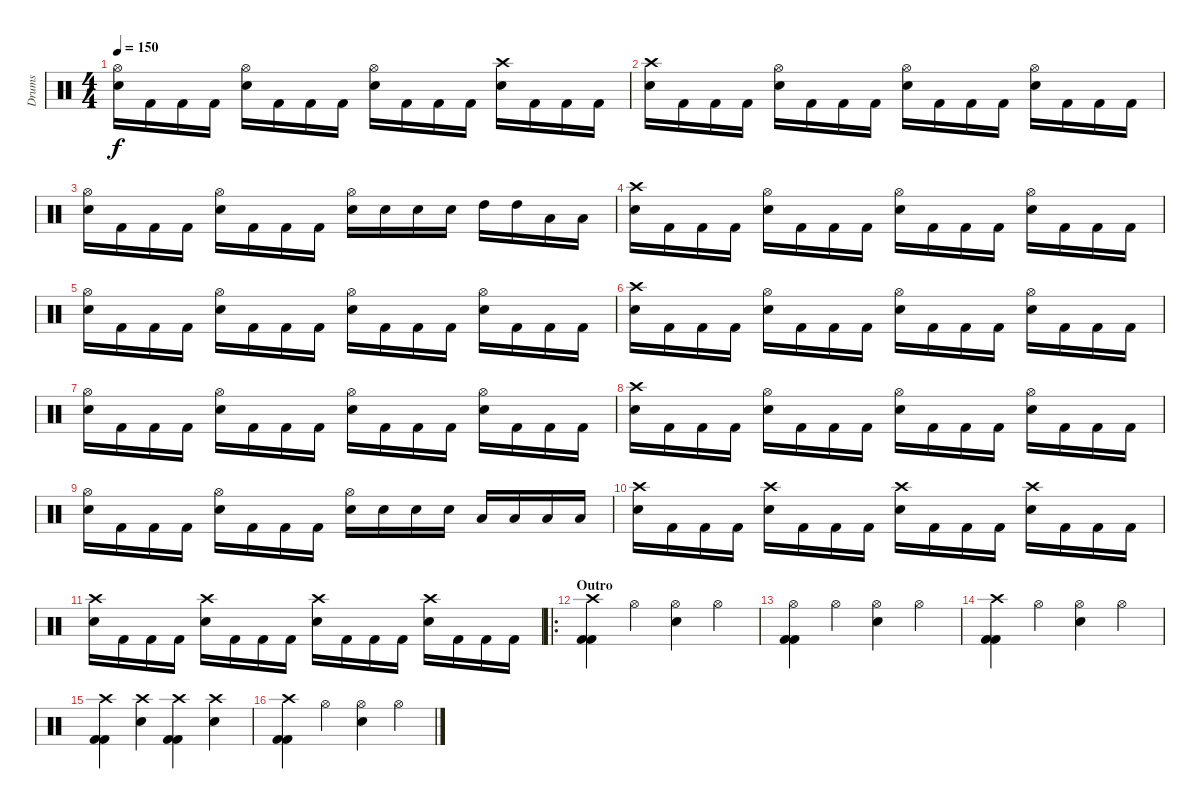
\track ("Drums" "Drums") {instrument percussion}
\staff {score}
\articulation defaults
\ts (4 4)
\tempo 150
\clef neutral
\ks c
("Electric Snare (hit)" "Hi-Hat (open)").16{dy f} "Kick (hit) 2".16 "Kick (hit) 2".16 "Kick (hit) 2".16 ("Hi-Hat (open)" "Electric Snare (hit)").16 "Kick (hit) 2".16 "Kick (hit) 2".16 "Kick (hit) 2".16 ("Electric Snare (hit)" "Hi-Hat (open)").16 "Kick (hit) 2".16 "Kick (hit) 2".16 "Kick (hit) 2".16 ("Electric Snare (hit)" "Crash high (hit)").16 "Kick (hit) 2".16 "Kick (hit) 2".16 "Kick (hit) 2".16 |
("Electric Snare (hit)" "Crash high (hit)").16 "Kick (hit) 2".16 "Kick (hit) 2".16 "Kick (hit) 2".16 ("Hi-Hat (open)" "Electric Snare (hit)").16 "Kick (hit) 2".16 "Kick (hit) 2".16 "Kick (hit) 2".16 ("Electric Snare (hit)" "Hi-Hat (open)").16 "Kick (hit) 2".16 "Kick (hit) 2".16 "Kick (hit) 2".16 ("Electric Snare (hit)" "Hi-Hat (open)").16 "Kick (hit) 2".16 "Kick (hit) 2".16 "Kick (hit) 2".16 |
("Electric Snare (hit)" "Hi-Hat (open)").16 "Kick (hit) 2".16 "Kick (hit) 2".16 "Kick (hit) 2".16 ("Hi-Hat (open)" "Electric Snare (hit)").16 "Kick (hit) 2".16 "Kick (hit) 2".16 "Kick (hit) 2".16 ("Electric Snare (hit)" "Hi-Hat (open)").16 "Electric Snare (hit)".16 "Electric Snare (hit)".16 "Electric Snare (hit)".16 "High Tom (hit)".16 "High Tom (hit)".16 "Low Tom (hit)".16 "Low Tom (hit)".16 |
("Electric Snare (hit)" "Crash high (hit)").16 "Kick (hit) 2".16 "Kick (hit) 2".16 "Kick (hit) 2".16 ("Hi-Hat (open)" "Electric Snare (hit)").16 "Kick (hit) 2".16 "Kick (hit) 2".16 "Kick (hit) 2".16 ("Electric Snare (hit)" "Hi-Hat (open)").16 "Kick (hit) 2".16 "Kick (hit) 2".16 "Kick (hit) 2".16 ("Electric Snare (hit)" "Hi-Hat (open)").16 "Kick (hit) 2".16 "Kick (hit) 2".16 "Kick (hit) 2".16 |
("Electric Snare (hit)" "Hi-Hat (open)").16 "Kick (hit) 2".16 "Kick (hit) 2".16 "Kick (hit) 2".16 ("Hi-Hat (open)" "Electric Snare (hit)").16 "Kick (hit) 2".16 "Kick (hit) 2".16 "Kick (hit) 2".16 ("Electric Snare (hit)" "Hi-Hat (open)").16 "Kick (hit) 2".16 "Kick (hit) 2".16 "Kick (hit) 2".16 ("Electric Snare (hit)" "Hi-Hat (open)").16 "Kick (hit) 2".16 "Kick (hit) 2".16 "Kick (hit) 2".16 |
("Electric Snare (hit)" "Crash high (hit)").16 "Kick (hit) 2".16 "Kick (hit) 2".16 "Kick (hit) 2".16 ("Hi-Hat (open)" "Electric Snare (hit)").16 "Kick (hit) 2".16 "Kick (hit) 2".16 "Kick (hit) 2".16 ("Electric Snare (hit)" "Hi-Hat (open)").16 "Kick (hit) 2".16 "Kick (hit) 2".16 "Kick (hit) 2".16 ("Electric Snare (hit)" "Hi-Hat (open)").16 "Kick (hit) 2".16 "Kick (hit) 2".16 "Kick (hit) 2".16 |
("Electric Snare (hit)" "Hi-Hat (open)").16 "Kick (hit) 2".16 "Kick (hit) 2".16 "Kick (hit) 2".16 ("Hi-Hat (open)" "Electric Snare (hit)").16 "Kick (hit) 2".16 "Kick (hit) 2".16 "Kick (hit) 2".16 ("Electric Snare (hit)" "Hi-Hat (open)").16 "Kick (hit) 2".16 "Kick (hit) 2".16 "Kick (hit) 2".16 ("Electric Snare (hit)" "Hi-Hat (open)").16 "Kick (hit) 2".16 "Kick (hit) 2".16 "Kick (hit) 2".16 |
("Electric Snare (hit)" "Crash high (hit)").16 "Kick (hit) 2".16 "Kick (hit) 2".16 "Kick (hit) 2".16 ("Hi-Hat (open)" "Electric Snare (hit)").16 "Kick (hit) 2".16 "Kick (hit) 2".16 "Kick (hit) 2".16 ("Electric Snare (hit)" "Hi-Hat (open)").16 "Kick (hit) 2".16 "Kick (hit) 2".16 "Kick (hit) 2".16 ("Electric Snare (hit)" "Hi-Hat (open)").16 "Kick (hit) 2".16 "Kick (hit) 2".16 "Kick (hit) 2".16 |
("Electric Snare (hit)" "Hi-Hat (open)").16 "Kick (hit) 2".16 "Kick (hit) 2".16 "Kick (hit) 2".16 ("Hi-Hat (open)" "Electric Snare (hit)").16 "Kick (hit) 2".16 "Kick (hit) 2".16 "Kick (hit) 2".16 ("Electric Snare (hit)" "Hi-Hat (open)").16 "Electric Snare (hit)".16 "Electric Snare (hit)".16 "Electric Snare (hit)".16 "Low Tom (hit)".16 "Low Tom (hit)".16 "Low Tom (hit)".16 "Low Tom (hit)".16 |
("Electric Snare (hit)" "Crash high (hit)").16 "Kick (hit) 2".16 "Kick (hit) 2".16 "Kick (hit) 2".16 ("Crash high (hit)" "Electric Snare (hit)").16 "Kick (hit) 2".16 "Kick (hit) 2".16 "Kick (hit) 2".16 ("Electric Snare (hit)" "Crash high (hit)").16 "Kick (hit) 2".16 "Kick (hit) 2".16 "Kick (hit) 2".16 ("Electric Snare (hit)" "Crash high (hit)").16 "Kick (hit) 2".16 "Kick (hit) 2".16 "Kick (hit) 2".16 |
("Electric Snare (hit)" "Crash high (hit)").16 "Kick (hit) 2".16 "Kick (hit) 2".16 "Kick (hit) 2".16 ("Crash high (hit)" "Electric Snare (hit)").16 "Kick (hit) 2".16 "Kick (hit) 2".16 "Kick (hit) 2".16 ("Electric Snare (hit)" "Crash high (hit)").16 "Kick (hit) 2".16 "Kick (hit) 2".16 "Kick (hit) 2".16 ("Electric Snare (hit)" "Crash high (hit)").16 "Kick (hit) 2".16 "Kick (hit) 2".16 "Kick (hit) 2".16 |
\ro
\section ("" "Outro")
("Crash high (hit)" "Kick (hit) 2" "Kick (hit) 2").4 "Hi-Hat (open)".4 ("Electric Snare (hit)" "Hi-Hat (open)").4 "Hi-Hat (open)".4 |
("Kick (hit) 2" "Kick (hit) 2" "Hi-Hat (open)").4 "Hi-Hat (open)".4 ("Hi-Hat (open)" "Electric Snare (hit)").4 "Hi-Hat (open)".4 |
("Crash high (hit)" "Kick (hit) 2" "Kick (hit) 2").4 "Hi-Hat (open)".4 ("Electric Snare (hit)" "Hi-Hat (open)").4 "Hi-Hat (open)".4 |
("Crash high (hit)" "Kick (hit) 2" "Kick (hit) 2").4 ("Electric Snare (hit)" "Crash high (hit)").4 ("Crash high (hit)" "Kick (hit) 2" "Kick (hit) 2").4 ("Electric Snare (hit)" "Crash high (hit)").4 |
("Crash high (hit)" "Kick (hit) 2" "Kick (hit) 2").4 "Hi-Hat (open)".4 ("Electric Snare (hit)" "Hi-Hat (open)").4 "Hi-Hat (open)".4
